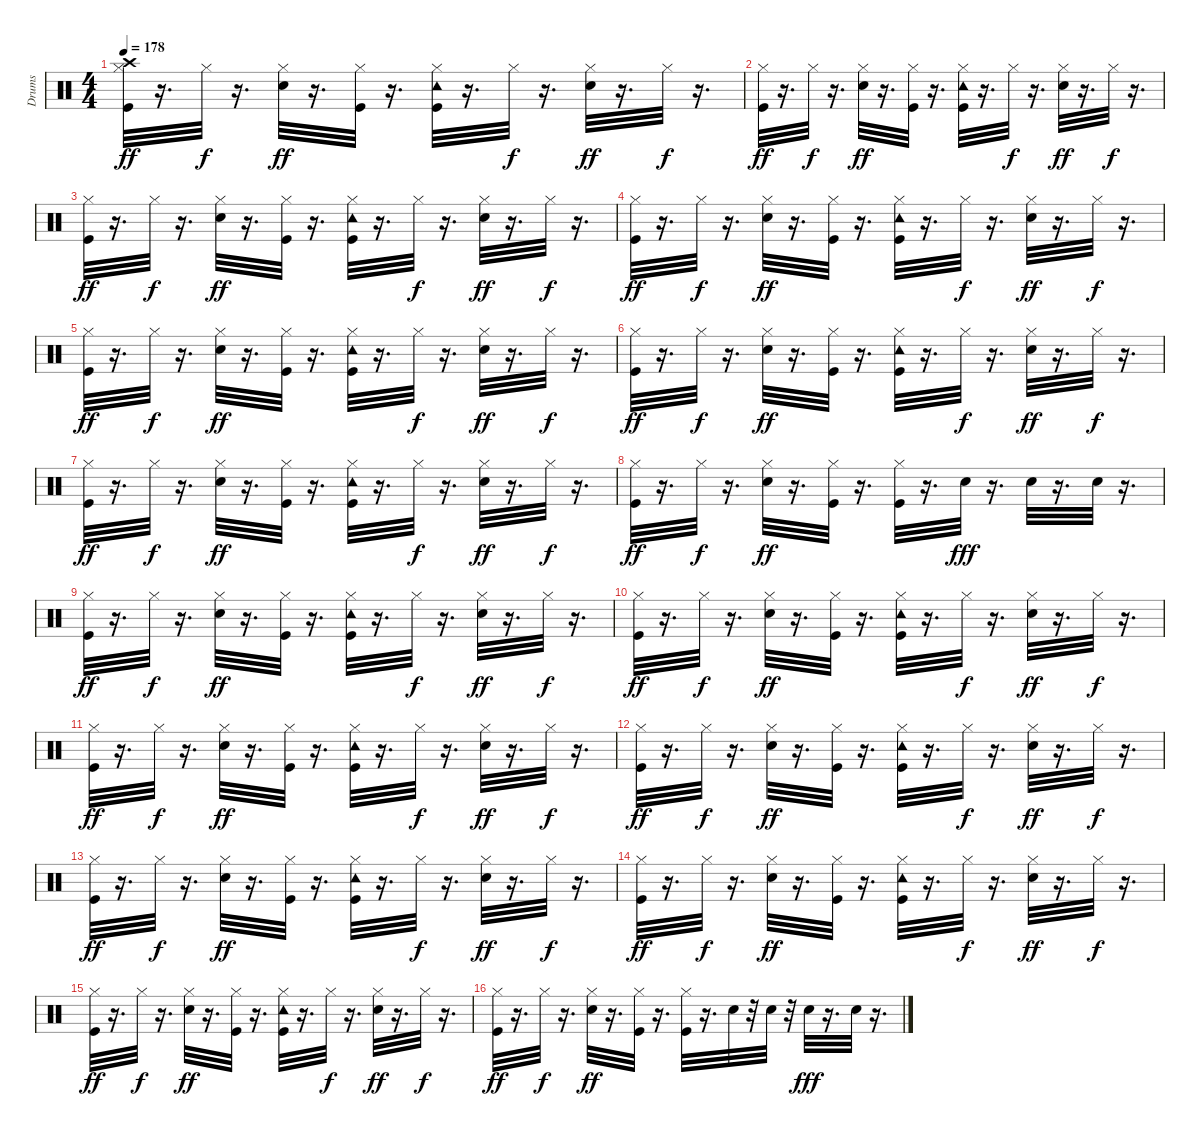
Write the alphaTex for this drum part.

\track ("Drums" "Drums") {instrument percussion}
\staff {score}
\articulation defaults
\ts (4 4)
\tempo 178
\clef neutral
\ks c
("Kick (hit)" "Crash high (hit)" "Hi-Hat (closed)").32{dy ff} r.16{d} "Hi-Hat (closed)".32{dy f} r.16{d} ("Snare (hit) 2" "Hi-Hat (closed)").32{dy ff} r.16{d} ("Hi-Hat (closed)" "Kick (hit)").32 r.16{d} ("Kick (hit)" "Tambourine (hit)" "Hi-Hat (closed)").32 r.16{d} "Hi-Hat (closed)".32{dy f} r.16{d} ("Snare (hit) 2" "Hi-Hat (closed)").32{dy ff} r.16{d} "Hi-Hat (closed)".32{dy f} r.16{d} |
("Kick (hit)" "Hi-Hat (closed)").32{dy ff} r.16{d} "Hi-Hat (closed)".32{dy f} r.16{d} ("Snare (hit) 2" "Hi-Hat (closed)").32{dy ff} r.16{d} ("Hi-Hat (closed)" "Kick (hit)").32 r.16{d} ("Kick (hit)" "Tambourine (hit)" "Hi-Hat (closed)").32 r.16{d} "Hi-Hat (closed)".32{dy f} r.16{d} ("Snare (hit) 2" "Hi-Hat (closed)").32{dy ff} r.16{d} "Hi-Hat (closed)".32{dy f} r.16{d} |
("Kick (hit)" "Hi-Hat (closed)").32{dy ff} r.16{d} "Hi-Hat (closed)".32{dy f} r.16{d} ("Snare (hit) 2" "Hi-Hat (closed)").32{dy ff} r.16{d} ("Hi-Hat (closed)" "Kick (hit)").32 r.16{d} ("Kick (hit)" "Tambourine (hit)" "Hi-Hat (closed)").32 r.16{d} "Hi-Hat (closed)".32{dy f} r.16{d} ("Snare (hit) 2" "Hi-Hat (closed)").32{dy ff} r.16{d} "Hi-Hat (closed)".32{dy f} r.16{d} |
("Kick (hit)" "Hi-Hat (closed)").32{dy ff} r.16{d} "Hi-Hat (closed)".32{dy f} r.16{d} ("Snare (hit) 2" "Hi-Hat (closed)").32{dy ff} r.16{d} ("Hi-Hat (closed)" "Kick (hit)").32 r.16{d} ("Kick (hit)" "Tambourine (hit)" "Hi-Hat (closed)").32 r.16{d} "Hi-Hat (closed)".32{dy f} r.16{d} ("Snare (hit) 2" "Hi-Hat (closed)").32{dy ff} r.16{d} "Hi-Hat (closed)".32{dy f} r.16{d} |
("Kick (hit)" "Hi-Hat (closed)").32{dy ff} r.16{d} "Hi-Hat (closed)".32{dy f} r.16{d} ("Snare (hit) 2" "Hi-Hat (closed)").32{dy ff} r.16{d} ("Hi-Hat (closed)" "Kick (hit)").32 r.16{d} ("Kick (hit)" "Tambourine (hit)" "Hi-Hat (closed)").32 r.16{d} "Hi-Hat (closed)".32{dy f} r.16{d} ("Snare (hit) 2" "Hi-Hat (closed)").32{dy ff} r.16{d} "Hi-Hat (closed)".32{dy f} r.16{d} |
("Kick (hit)" "Hi-Hat (closed)").32{dy ff} r.16{d} "Hi-Hat (closed)".32{dy f} r.16{d} ("Snare (hit) 2" "Hi-Hat (closed)").32{dy ff} r.16{d} ("Hi-Hat (closed)" "Kick (hit)").32 r.16{d} ("Kick (hit)" "Tambourine (hit)" "Hi-Hat (closed)").32 r.16{d} "Hi-Hat (closed)".32{dy f} r.16{d} ("Snare (hit) 2" "Hi-Hat (closed)").32{dy ff} r.16{d} "Hi-Hat (closed)".32{dy f} r.16{d} |
("Kick (hit)" "Hi-Hat (closed)").32{dy ff} r.16{d} "Hi-Hat (closed)".32{dy f} r.16{d} ("Snare (hit) 2" "Hi-Hat (closed)").32{dy ff} r.16{d} ("Hi-Hat (closed)" "Kick (hit)").32 r.16{d} ("Kick (hit)" "Tambourine (hit)" "Hi-Hat (closed)").32 r.16{d} "Hi-Hat (closed)".32{dy f} r.16{d} ("Snare (hit) 2" "Hi-Hat (closed)").32{dy ff} r.16{d} "Hi-Hat (closed)".32{dy f} r.16{d} |
("Kick (hit)" "Hi-Hat (closed)").32{dy ff} r.16{d} "Hi-Hat (closed)".32{dy f} r.16{d} ("Snare (hit) 2" "Hi-Hat (closed)").32{dy ff} r.16{d} ("Hi-Hat (closed)" "Kick (hit)").32 r.16{d} ("Kick (hit)" "Hi-Hat (closed)").32 r.16{d} "Snare (hit) 2".32{dy fff} r.16{d} "Snare (hit) 2".32 r.16{d} "Snare (hit) 2".32 r.16{d} |
("Kick (hit)" "Hi-Hat (closed)").32{dy ff} r.16{d} "Hi-Hat (closed)".32{dy f} r.16{d} ("Snare (hit) 2" "Hi-Hat (closed)").32{dy ff} r.16{d} ("Hi-Hat (closed)" "Kick (hit)").32 r.16{d} ("Kick (hit)" "Tambourine (hit)" "Hi-Hat (closed)").32 r.16{d} "Hi-Hat (closed)".32{dy f} r.16{d} ("Snare (hit) 2" "Hi-Hat (closed)").32{dy ff} r.16{d} "Hi-Hat (closed)".32{dy f} r.16{d} |
("Kick (hit)" "Hi-Hat (closed)").32{dy ff} r.16{d} "Hi-Hat (closed)".32{dy f} r.16{d} ("Snare (hit) 2" "Hi-Hat (closed)").32{dy ff} r.16{d} ("Hi-Hat (closed)" "Kick (hit)").32 r.16{d} ("Kick (hit)" "Tambourine (hit)" "Hi-Hat (closed)").32 r.16{d} "Hi-Hat (closed)".32{dy f} r.16{d} ("Snare (hit) 2" "Hi-Hat (closed)").32{dy ff} r.16{d} "Hi-Hat (closed)".32{dy f} r.16{d} |
("Kick (hit)" "Hi-Hat (closed)").32{dy ff} r.16{d} "Hi-Hat (closed)".32{dy f} r.16{d} ("Snare (hit) 2" "Hi-Hat (closed)").32{dy ff} r.16{d} ("Hi-Hat (closed)" "Kick (hit)").32 r.16{d} ("Kick (hit)" "Tambourine (hit)" "Hi-Hat (closed)").32 r.16{d} "Hi-Hat (closed)".32{dy f} r.16{d} ("Snare (hit) 2" "Hi-Hat (closed)").32{dy ff} r.16{d} "Hi-Hat (closed)".32{dy f} r.16{d} |
("Kick (hit)" "Hi-Hat (closed)").32{dy ff} r.16{d} "Hi-Hat (closed)".32{dy f} r.16{d} ("Snare (hit) 2" "Hi-Hat (closed)").32{dy ff} r.16{d} ("Hi-Hat (closed)" "Kick (hit)").32 r.16{d} ("Kick (hit)" "Tambourine (hit)" "Hi-Hat (closed)").32 r.16{d} "Hi-Hat (closed)".32{dy f} r.16{d} ("Snare (hit) 2" "Hi-Hat (closed)").32{dy ff} r.16{d} "Hi-Hat (closed)".32{dy f} r.16{d} |
("Kick (hit)" "Hi-Hat (closed)").32{dy ff} r.16{d} "Hi-Hat (closed)".32{dy f} r.16{d} ("Snare (hit) 2" "Hi-Hat (closed)").32{dy ff} r.16{d} ("Hi-Hat (closed)" "Kick (hit)").32 r.16{d} ("Kick (hit)" "Tambourine (hit)" "Hi-Hat (closed)").32 r.16{d} "Hi-Hat (closed)".32{dy f} r.16{d} ("Snare (hit) 2" "Hi-Hat (closed)").32{dy ff} r.16{d} "Hi-Hat (closed)".32{dy f} r.16{d} |
("Kick (hit)" "Hi-Hat (closed)").32{dy ff} r.16{d} "Hi-Hat (closed)".32{dy f} r.16{d} ("Snare (hit) 2" "Hi-Hat (closed)").32{dy ff} r.16{d} ("Hi-Hat (closed)" "Kick (hit)").32 r.16{d} ("Kick (hit)" "Tambourine (hit)" "Hi-Hat (closed)").32 r.16{d} "Hi-Hat (closed)".32{dy f} r.16{d} ("Snare (hit) 2" "Hi-Hat (closed)").32{dy ff} r.16{d} "Hi-Hat (closed)".32{dy f} r.16{d} |
("Kick (hit)" "Hi-Hat (closed)").32{dy ff} r.16{d} "Hi-Hat (closed)".32{dy f} r.16{d} ("Snare (hit) 2" "Hi-Hat (closed)").32{dy ff} r.16{d} ("Hi-Hat (closed)" "Kick (hit)").32 r.16{d} ("Kick (hit)" "Tambourine (hit)" "Hi-Hat (closed)").32 r.16{d} "Hi-Hat (closed)".32{dy f} r.16{d} ("Snare (hit) 2" "Hi-Hat (closed)").32{dy ff} r.16{d} "Hi-Hat (closed)".32{dy f} r.16{d} |
("Kick (hit)" "Hi-Hat (closed)").32{dy ff} r.16{d} "Hi-Hat (closed)".32{dy f} r.16{d} ("Snare (hit) 2" "Hi-Hat (closed)").32{dy ff} r.16{d} ("Hi-Hat (closed)" "Kick (hit)").32 r.16{d} ("Kick (hit)" "Hi-Hat (closed)").32 r.16{d} "Snare (hit) 2".32 r.32 "Snare (hit) 2".32 r.32 "Snare (hit) 2".32{dy fff} r.16{d} "Snare (hit) 2".32 r.16{d}
